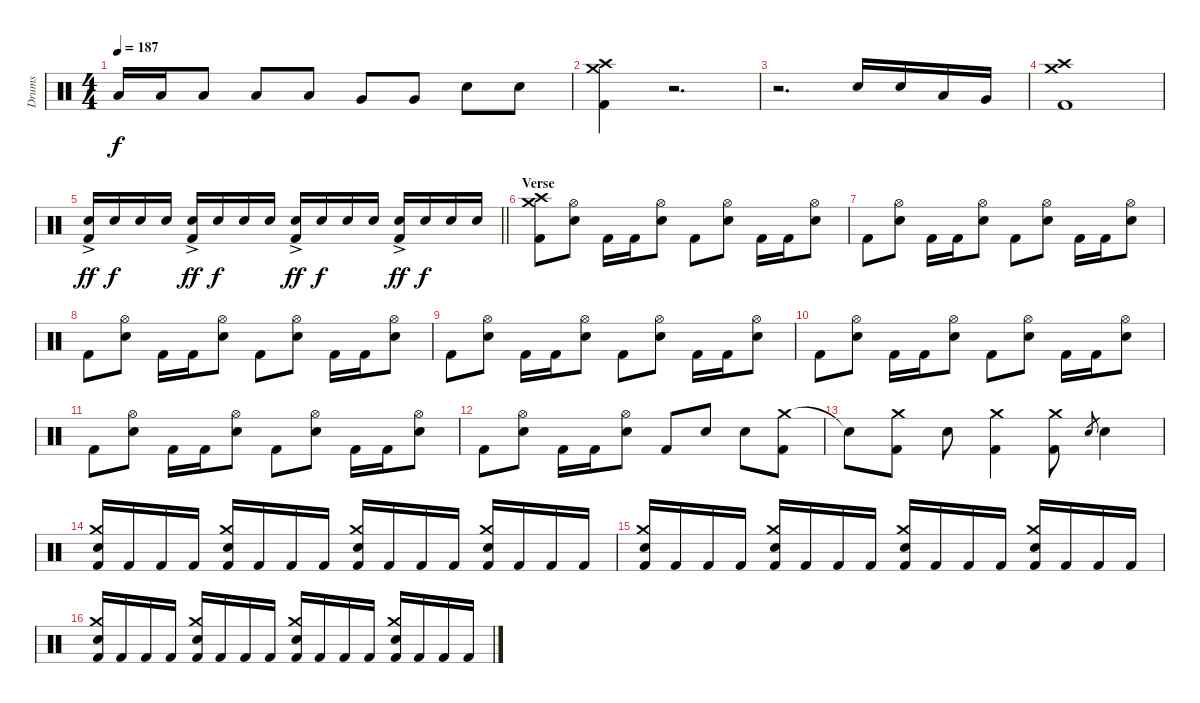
\track ("Drums" "Drums") {instrument percussion}
\staff {score}
\articulation defaults
\ts (4 4)
\tempo 187
\clef neutral
\ks c "Low Tom (hit)".16{dy f} "Low Tom (hit)".16 "Low Tom (hit)".8 "Low Tom (hit)".8 "Low Tom (hit)".8 "Very Low Tom (hit)".8 "Very Low Tom (hit)".8 "Electric Snare (hit)".8 "Electric Snare (hit)".8
|
("Crash medium (hit)" "Crash high (hit)" "Kick (hit) 2").4 r.2{d volume 0} |
r.2{d} "Electric Snare (hit)".16{volume 14} "Electric Snare (hit)".16 "Low Tom (hit)".16 "Very Low Tom (hit)".16 |
("Crash medium (hit)" "Crash high (hit)" "Kick (hit) 2").1 |
\barLineRight lightlight
("Electric Snare (hit)"{ac} "Kick (hit) 2").16{dy ff} "Electric Snare (hit)".16{dy f} "Electric Snare (hit)".16 "Electric Snare (hit)".16 ("Electric Snare (hit)"{ac} "Kick (hit) 2").16{dy ff} "Electric Snare (hit)".16{dy f} "Electric Snare (hit)".16 "Electric Snare (hit)".16 ("Electric Snare (hit)"{ac} "Kick (hit) 2").16{dy ff} "Electric Snare (hit)".16{dy f} "Electric Snare (hit)".16 "Electric Snare (hit)".16 ("Electric Snare (hit)"{ac} "Kick (hit) 2").16{dy ff} "Electric Snare (hit)".16{dy f} "Electric Snare (hit)".16 "Electric Snare (hit)".16 |
\section ("" "Verse")
("Crash medium (hit)" "Crash high (hit)" "Kick (hit) 2").8 ("Hi-Hat (open)" "Electric Snare (hit)").8 "Kick (hit) 2".16 "Kick (hit) 2".16 ("Hi-Hat (open)" "Electric Snare (hit)").8 "Kick (hit) 2".8 ("Hi-Hat (open)" "Electric Snare (hit)").8 "Kick (hit) 2".16 "Kick (hit) 2".16 ("Hi-Hat (open)" "Electric Snare (hit)").8 |
"Kick (hit) 2".8 ("Hi-Hat (open)" "Electric Snare (hit)").8 "Kick (hit) 2".16 "Kick (hit) 2".16 ("Hi-Hat (open)" "Electric Snare (hit)").8 "Kick (hit) 2".8 ("Hi-Hat (open)" "Electric Snare (hit)").8 "Kick (hit) 2".16 "Kick (hit) 2".16 ("Hi-Hat (open)" "Electric Snare (hit)").8 |
"Kick (hit) 2".8 ("Hi-Hat (open)" "Electric Snare (hit)").8 "Kick (hit) 2".16 "Kick (hit) 2".16 ("Hi-Hat (open)" "Electric Snare (hit)").8 "Kick (hit) 2".8 ("Hi-Hat (open)" "Electric Snare (hit)").8 "Kick (hit) 2".16 "Kick (hit) 2".16 ("Hi-Hat (open)" "Electric Snare (hit)").8 |
"Kick (hit) 2".8 ("Hi-Hat (open)" "Electric Snare (hit)").8 "Kick (hit) 2".16 "Kick (hit) 2".16 ("Hi-Hat (open)" "Electric Snare (hit)").8 "Kick (hit) 2".8 ("Hi-Hat (open)" "Electric Snare (hit)").8 "Kick (hit) 2".16 "Kick (hit) 2".16 ("Hi-Hat (open)" "Electric Snare (hit)").8 |
"Kick (hit) 2".8 ("Hi-Hat (open)" "Electric Snare (hit)").8 "Kick (hit) 2".16 "Kick (hit) 2".16 ("Hi-Hat (open)" "Electric Snare (hit)").8 "Kick (hit) 2".8 ("Hi-Hat (open)" "Electric Snare (hit)").8 "Kick (hit) 2".16 "Kick (hit) 2".16 ("Hi-Hat (open)" "Electric Snare (hit)").8 |
"Kick (hit) 2".8 ("Hi-Hat (open)" "Electric Snare (hit)").8 "Kick (hit) 2".16 "Kick (hit) 2".16 ("Hi-Hat (open)" "Electric Snare (hit)").8 "Kick (hit) 2".8 ("Hi-Hat (open)" "Electric Snare (hit)").8 "Kick (hit) 2".16 "Kick (hit) 2".16 ("Hi-Hat (open)" "Electric Snare (hit)").8 |
"Kick (hit) 2".8 ("Hi-Hat (open)" "Electric Snare (hit)").8 "Kick (hit) 2".16 "Kick (hit) 2".16 ("Hi-Hat (open)" "Electric Snare (hit)").8 "Kick (hit) 2".8 "Electric Snare (hit)".8 "Electric Snare (hit)".8 ("Crash medium (hit)" "Kick (hit) 2").8 |
"Snare (hit)"{t}.8 ("Crash medium (hit)" "Kick (hit) 2").8 "Electric Snare (hit)".8 ("Crash medium (hit)" "Kick (hit) 2").4 ("Crash medium (hit)" "Kick (hit) 2").8 "Electric Snare (hit)".8{gr} "Electric Snare (hit)".4 |
("Crash medium (hit)" "Electric Snare (hit)" "Kick (hit) 2").16 "Kick (hit) 2".16 "Kick (hit) 2".16 "Kick (hit) 2".16 ("Crash medium (hit)" "Electric Snare (hit)" "Kick (hit) 2").16 "Kick (hit) 2".16 "Kick (hit) 2".16 "Kick (hit) 2".16 ("Crash medium (hit)" "Electric Snare (hit)" "Kick (hit) 2").16 "Kick (hit) 2".16 "Kick (hit) 2".16 "Kick (hit) 2".16 ("Crash medium (hit)" "Electric Snare (hit)" "Kick (hit) 2").16 "Kick (hit) 2".16 "Kick (hit) 2".16 "Kick (hit) 2".16 |
("Crash medium (hit)" "Electric Snare (hit)" "Kick (hit) 2").16 "Kick (hit) 2".16 "Kick (hit) 2".16 "Kick (hit) 2".16 ("Crash medium (hit)" "Electric Snare (hit)" "Kick (hit) 2").16 "Kick (hit) 2".16 "Kick (hit) 2".16 "Kick (hit) 2".16 ("Crash medium (hit)" "Electric Snare (hit)" "Kick (hit) 2").16 "Kick (hit) 2".16 "Kick (hit) 2".16 "Kick (hit) 2".16 ("Crash medium (hit)" "Electric Snare (hit)" "Kick (hit) 2").16 "Kick (hit) 2".16 "Kick (hit) 2".16 "Kick (hit) 2".16 |
("Crash medium (hit)" "Electric Snare (hit)" "Kick (hit) 2").16 "Kick (hit) 2".16 "Kick (hit) 2".16 "Kick (hit) 2".16 ("Crash medium (hit)" "Electric Snare (hit)" "Kick (hit) 2").16 "Kick (hit) 2".16 "Kick (hit) 2".16 "Kick (hit) 2".16 ("Crash medium (hit)" "Electric Snare (hit)" "Kick (hit) 2").16 "Kick (hit) 2".16 "Kick (hit) 2".16 "Kick (hit) 2".16 ("Crash medium (hit)" "Electric Snare (hit)" "Kick (hit) 2").16 "Kick (hit) 2".16 "Kick (hit) 2".16 "Kick (hit) 2".16
